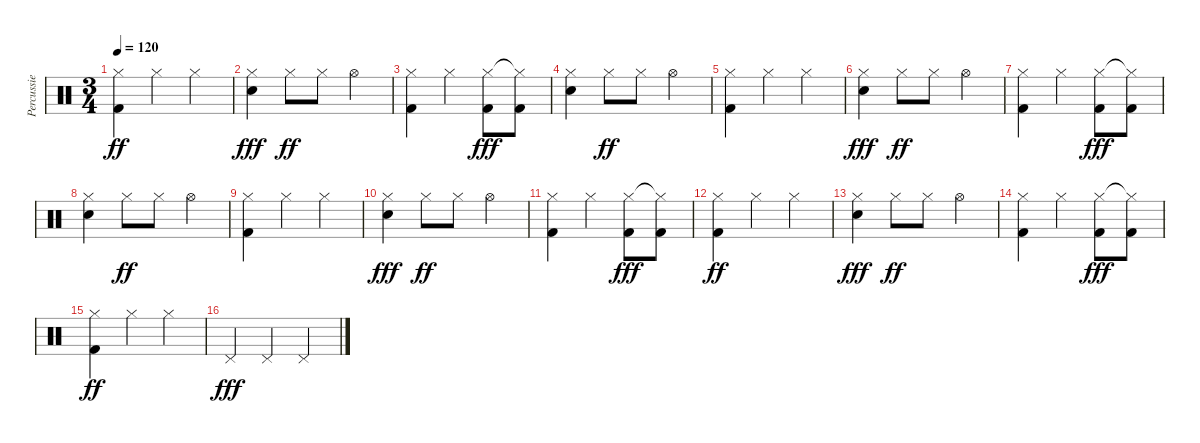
\track ("Percussie" "Percussie") {instrument percussion}
\staff {score}
\articulation defaults
\ts (3 4)
\tempo 120
\clef neutral
\ks c
("Hi-Hat (closed)" "Kick (hit) 2").4{dy ff} "Hi-Hat (closed)".4 "Hi-Hat (closed)".4 |
("Hi-Hat (closed)" "Electric Snare (hit)").4{dy fff} "Hi-Hat (closed)".8{dy ff} "Hi-Hat (closed)".8 "Hi-Hat (open)".4 |
("Hi-Hat (closed)" "Kick (hit) 2").4 "Hi-Hat (closed)".4 ("Hi-Hat (closed)" "Kick (hit) 2").8{dy fff} ("Hi-Hat (closed)"{t} "Kick (hit) 2").8 |
("Hi-Hat (closed)" "Electric Snare (hit)").4 "Hi-Hat (closed)".8{dy ff} "Hi-Hat (closed)".8 "Hi-Hat (open)".4 |
("Hi-Hat (closed)" "Kick (hit) 2").4 "Hi-Hat (closed)".4 "Hi-Hat (closed)".4 |
("Hi-Hat (closed)" "Electric Snare (hit)").4{dy fff} "Hi-Hat (closed)".8{dy ff} "Hi-Hat (closed)".8 "Hi-Hat (open)".4 |
("Hi-Hat (closed)" "Kick (hit) 2").4 "Hi-Hat (closed)".4 ("Hi-Hat (closed)" "Kick (hit) 2").8{dy fff} ("Hi-Hat (closed)"{t} "Kick (hit) 2").8 |
("Hi-Hat (closed)" "Electric Snare (hit)").4 "Hi-Hat (closed)".8{dy ff} "Hi-Hat (closed)".8 "Hi-Hat (open)".4 |
("Hi-Hat (closed)" "Kick (hit) 2").4 "Hi-Hat (closed)".4 "Hi-Hat (closed)".4 |
("Hi-Hat (closed)" "Electric Snare (hit)").4{dy fff} "Hi-Hat (closed)".8{dy ff} "Hi-Hat (closed)".8 "Hi-Hat (open)".4 |
("Hi-Hat (closed)" "Kick (hit) 2").4 "Hi-Hat (closed)".4 ("Hi-Hat (closed)" "Kick (hit) 2").8{dy fff} ("Hi-Hat (closed)"{t} "Kick (hit) 2").8 |
("Hi-Hat (closed)" "Kick (hit) 2").4{dy ff} "Hi-Hat (closed)".4 "Hi-Hat (closed)".4 |
("Hi-Hat (closed)" "Electric Snare (hit)").4{dy fff} "Hi-Hat (closed)".8{dy ff} "Hi-Hat (closed)".8 "Hi-Hat (open)".4 |
("Hi-Hat (closed)" "Kick (hit) 2").4 "Hi-Hat (closed)".4 ("Hi-Hat (closed)" "Kick (hit) 2").8{dy fff} ("Hi-Hat (closed)"{t} "Kick (hit) 2").8 |
("Hi-Hat (closed)" "Kick (hit) 2").4{dy ff} "Hi-Hat (closed)".4 "Hi-Hat (closed)".4 |
"Pedal Hi-Hat (hit)".4{dy fff} "Pedal Hi-Hat (hit)".4 "Pedal Hi-Hat (hit)".4
